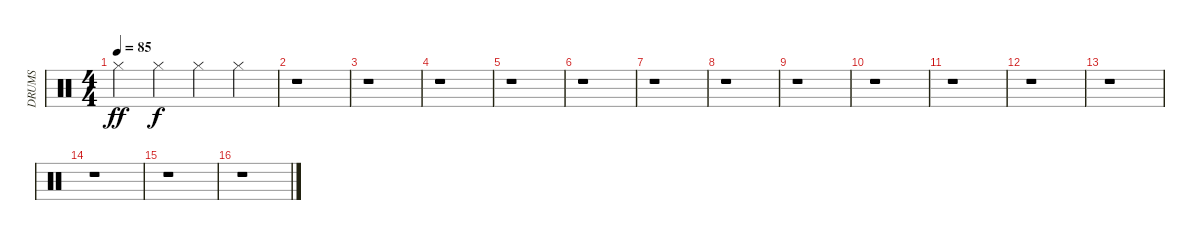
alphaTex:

\track ("DRUMS" "DRUMS") {instrument percussion}
\staff {score}
\articulation defaults
\ts (4 4)
\tempo 85
\clef neutral
\ks c "Hi-Hat (closed)".4{dy ff} "Hi-Hat (closed)".4{dy f} "Hi-Hat (closed)".4 "Hi-Hat (closed)".4
|
r.1 |
r.1 |
r.1 |
r.1 |
r.1 |
r.1 |
r.1 |
r.1 |
r.1 |
r.1 |
r.1 |
r.1 |
r.1 |
r.1 |
r.1
